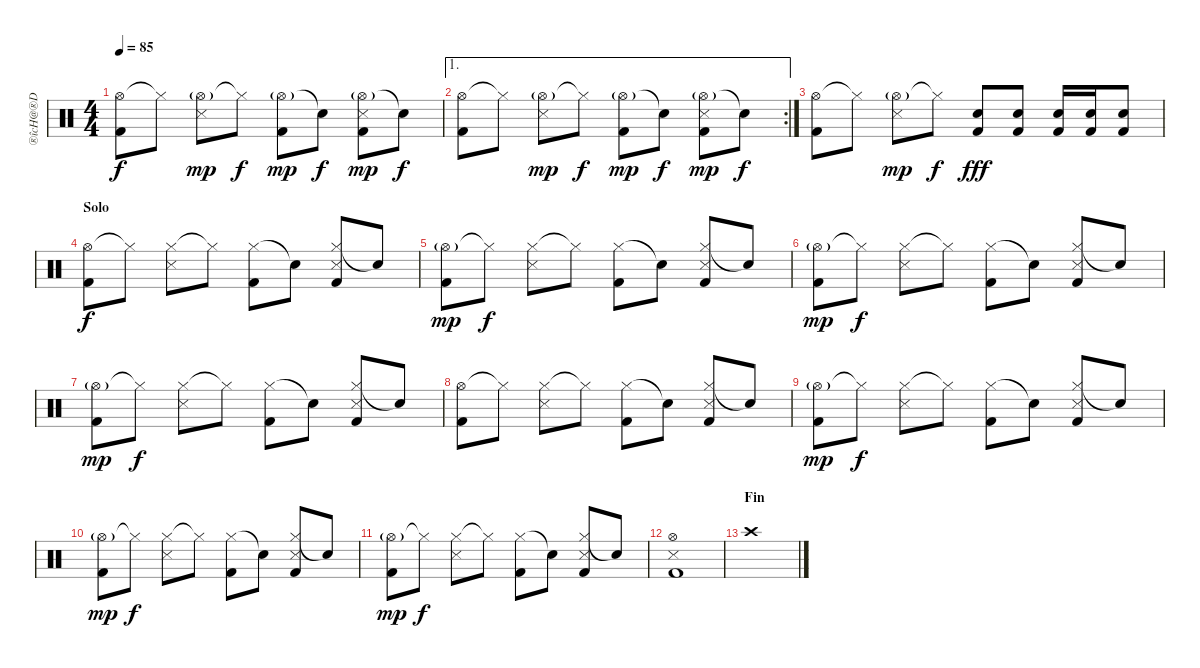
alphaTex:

\track ("®îcH@®D" "®îcH@®D") {instrument percussion}
\staff {score}
\articulation defaults
\ts (4 4)
\tempo 85
\clef neutral
\ks c
("Hi-Hat (open)" "Kick (hit) 2").8{dy f} "Hi-Hat (closed)"{t}.8 ("Hi-Hat (open)"{g} "Snare (side stick) 3").8{dy mp} "Hi-Hat (closed)"{t}.8{dy f} ("Hi-Hat (open)"{g} "Kick (hit) 2").8{dy mp} "Snare (hit)"{t}.8{dy f} ("Hi-Hat (open)"{g} "Snare (side stick) 3" "Kick (hit) 2").8{dy mp} "Snare (hit)"{t}.8{dy f} |
\ae 1
\rc 2
("Hi-Hat (open)" "Kick (hit) 2").8 "Hi-Hat (closed)"{t}.8 ("Hi-Hat (open)"{g} "Snare (side stick) 3").8{dy mp} "Hi-Hat (closed)"{t}.8{dy f} ("Hi-Hat (open)"{g} "Kick (hit) 2").8{dy mp} "Snare (hit)"{t}.8{dy f} ("Hi-Hat (open)"{g} "Snare (side stick) 3" "Kick (hit) 2").8{dy mp} "Snare (hit)"{t}.8{dy f} |
("Hi-Hat (open)" "Kick (hit) 2").8 "Hi-Hat (closed)"{t}.8 ("Hi-Hat (open)"{g} "Snare (side stick) 3").8{dy mp} "Hi-Hat (closed)"{t}.8{dy f} ("Electric Snare (hit)" "Kick (hit) 2").8{dy fff volume 16} ("Electric Snare (hit)" "Kick (hit) 2").8 ("Electric Snare (hit)" "Kick (hit) 2").16 ("Electric Snare (hit)" "Kick (hit) 2").16 ("Electric Snare (hit)" "Kick (hit) 2").8 |
\section ("" "Solo")
("Hi-Hat (open)" "Kick (hit) 2").8{dy f volume 13} "Hi-Hat (closed)"{t}.8 ("Hi-Hat (closed)" "Snare (side stick) 3").8 "Hi-Hat (closed)"{t}.8 ("Hi-Hat (closed)" "Kick (hit) 2").8 "Snare (hit)"{t}.8 ("Hi-Hat (closed)" "Snare (side stick) 3" "Kick (hit) 2").8 "Snare (hit)"{t}.8 |
("Hi-Hat (open)"{g} "Kick (hit) 2").8{dy mp} "Hi-Hat (closed)"{t}.8{dy f} ("Hi-Hat (closed)" "Snare (side stick) 3").8 "Hi-Hat (closed)"{t}.8 ("Hi-Hat (closed)" "Kick (hit) 2").8 "Snare (hit)"{t}.8 ("Hi-Hat (closed)" "Snare (side stick) 3" "Kick (hit) 2").8 "Snare (hit)"{t}.8 |
("Hi-Hat (open)"{g} "Kick (hit) 2").8{dy mp} "Hi-Hat (closed)"{t}.8{dy f} ("Hi-Hat (closed)" "Snare (side stick) 3").8 "Hi-Hat (closed)"{t}.8 ("Hi-Hat (closed)" "Kick (hit) 2").8 "Snare (hit)"{t}.8 ("Hi-Hat (closed)" "Snare (side stick) 3" "Kick (hit) 2").8 "Snare (hit)"{t}.8 |
("Hi-Hat (open)"{g} "Kick (hit) 2").8{dy mp} "Hi-Hat (closed)"{t}.8{dy f} ("Hi-Hat (closed)" "Snare (side stick) 3").8 "Hi-Hat (closed)"{t}.8 ("Hi-Hat (closed)" "Kick (hit) 2").8 "Snare (hit)"{t}.8 ("Hi-Hat (closed)" "Snare (side stick) 3" "Kick (hit) 2").8 "Snare (hit)"{t}.8 |
("Hi-Hat (open)" "Kick (hit) 2").8{volume 13} "Hi-Hat (closed)"{t}.8 ("Hi-Hat (closed)" "Snare (side stick) 3").8 "Hi-Hat (closed)"{t}.8 ("Hi-Hat (closed)" "Kick (hit) 2").8 "Snare (hit)"{t}.8 ("Hi-Hat (closed)" "Snare (side stick) 3" "Kick (hit) 2").8 "Snare (hit)"{t}.8 |
("Hi-Hat (open)"{g} "Kick (hit) 2").8{dy mp} "Hi-Hat (closed)"{t}.8{dy f} ("Hi-Hat (closed)" "Snare (side stick) 3").8 "Hi-Hat (closed)"{t}.8 ("Hi-Hat (closed)" "Kick (hit) 2").8 "Snare (hit)"{t}.8 ("Hi-Hat (closed)" "Snare (side stick) 3" "Kick (hit) 2").8 "Snare (hit)"{t}.8 |
("Hi-Hat (open)"{g} "Kick (hit) 2").8{dy mp} "Hi-Hat (closed)"{t}.8{dy f} ("Hi-Hat (closed)" "Snare (side stick) 3").8 "Hi-Hat (closed)"{t}.8 ("Hi-Hat (closed)" "Kick (hit) 2").8 "Snare (hit)"{t}.8 ("Hi-Hat (closed)" "Snare (side stick) 3" "Kick (hit) 2").8 "Snare (hit)"{t}.8 |
("Hi-Hat (open)"{g} "Kick (hit) 2").8{dy mp} "Hi-Hat (closed)"{t}.8{dy f} ("Hi-Hat (closed)" "Snare (side stick) 3").8 "Hi-Hat (closed)"{t}.8 ("Hi-Hat (closed)" "Kick (hit) 2").8 "Snare (hit)"{t}.8 ("Hi-Hat (closed)" "Snare (side stick) 3" "Kick (hit) 2").8 "Snare (hit)"{t}.8 |
("Hi-Hat (open)" "Snare (side stick) 3" "Kick (hit) 2").1 |
\section ("" "Fin")
"Crash high (hit)".1
